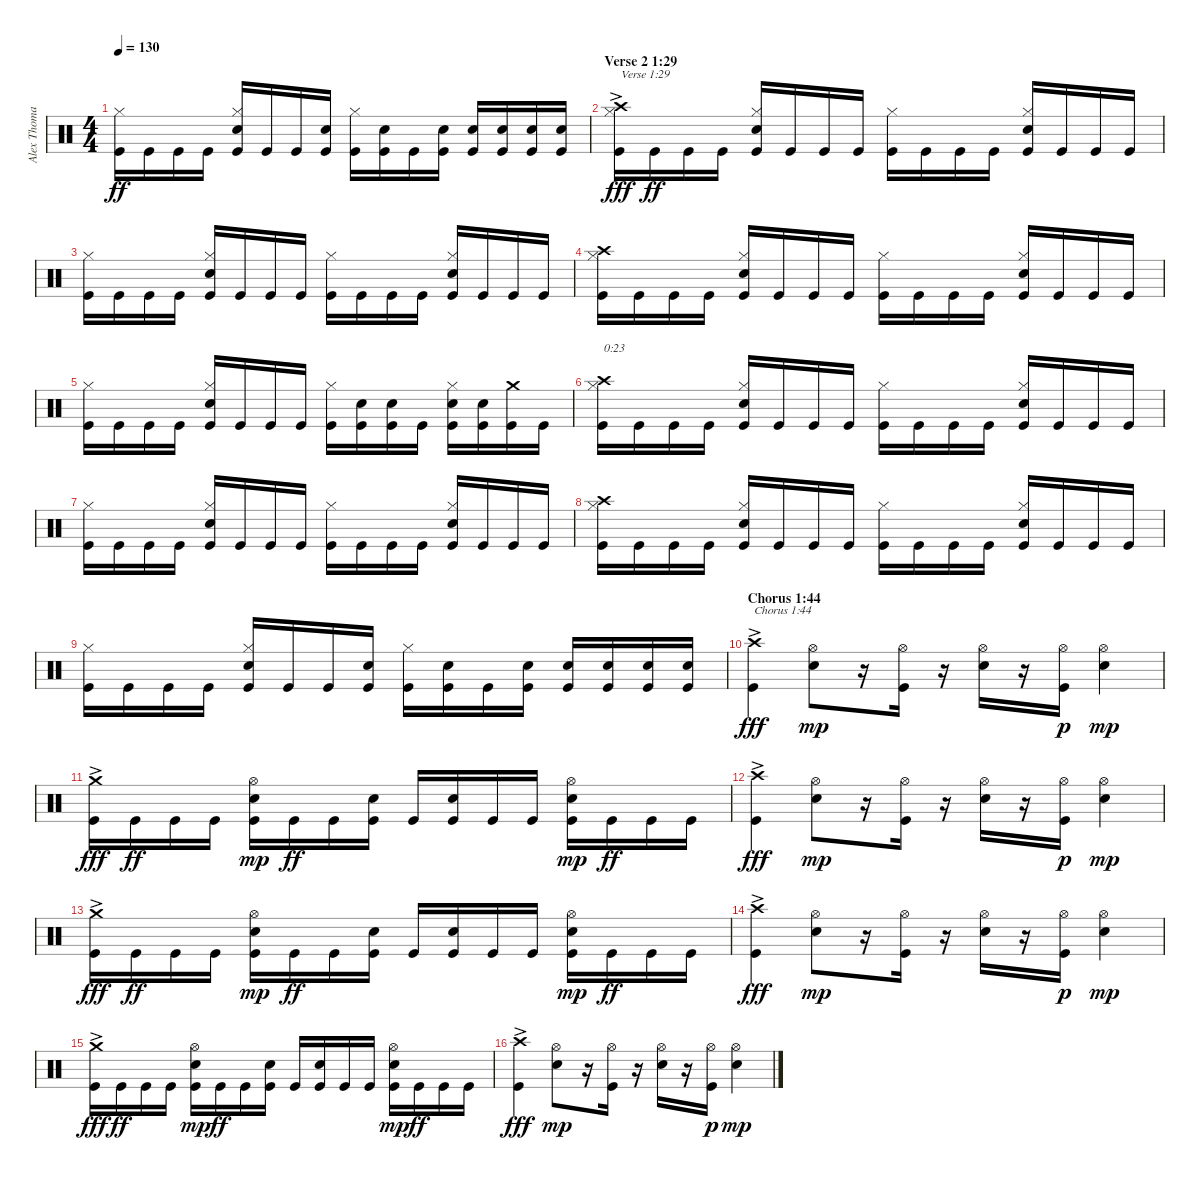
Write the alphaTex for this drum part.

\track ("Alex Thomas (Drums)" "Alex Thoma") {instrument percussion}
\staff {score}
\articulation defaults
\ts (4 4)
\tempo 130
\clef neutral
\ks c
("Kick (hit)" "Hi-Hat (closed)").16{dy ff} "Kick (hit)".16 "Kick (hit)".16 "Kick (hit)".16 ("Kick (hit)" "Electric Snare (hit)" "Hi-Hat (closed)").16 "Kick (hit)".16 "Kick (hit)".16 ("Kick (hit)" "Electric Snare (hit)").16 ("Kick (hit)" "Hi-Hat (closed)").16 ("Kick (hit)" "Electric Snare (hit)").16 "Kick (hit)".16 ("Kick (hit)" "Electric Snare (hit)").16 ("Kick (hit)" "Electric Snare (hit)").16 ("Kick (hit)" "Electric Snare (hit)").16 ("Kick (hit)" "Electric Snare (hit)").16 ("Kick (hit)" "Electric Snare (hit)").16 |
\section ("" "Verse 2 1:29")
("Kick (hit)" "Hi-Hat (closed)" "Crash high (hit)"{ac}).16{txt "Verse 1:29" dy fff} "Kick (hit)".16{dy ff} "Kick (hit)".16 "Kick (hit)".16 ("Kick (hit)" "Electric Snare (hit)" "Hi-Hat (closed)").16 "Kick (hit)".16 "Kick (hit)".16 "Kick (hit)".16 ("Kick (hit)" "Hi-Hat (closed)").16 "Kick (hit)".16 "Kick (hit)".16 "Kick (hit)".16 ("Kick (hit)" "Electric Snare (hit)" "Hi-Hat (closed)").16 "Kick (hit)".16 "Kick (hit)".16 "Kick (hit)".16 |
("Kick (hit)" "Hi-Hat (closed)").16 "Kick (hit)".16 "Kick (hit)".16 "Kick (hit)".16 ("Kick (hit)" "Electric Snare (hit)" "Hi-Hat (closed)").16 "Kick (hit)".16 "Kick (hit)".16 "Kick (hit)".16 ("Kick (hit)" "Hi-Hat (closed)").16 "Kick (hit)".16 "Kick (hit)".16 "Kick (hit)".16 ("Kick (hit)" "Electric Snare (hit)" "Hi-Hat (closed)").16 "Kick (hit)".16 "Kick (hit)".16 "Kick (hit)".16 |
("Kick (hit)" "Hi-Hat (closed)" "Crash high (hit)").16 "Kick (hit)".16 "Kick (hit)".16 "Kick (hit)".16 ("Kick (hit)" "Electric Snare (hit)" "Hi-Hat (closed)").16 "Kick (hit)".16 "Kick (hit)".16 "Kick (hit)".16 ("Kick (hit)" "Hi-Hat (closed)").16 "Kick (hit)".16 "Kick (hit)".16 "Kick (hit)".16 ("Kick (hit)" "Electric Snare (hit)" "Hi-Hat (closed)").16 "Kick (hit)".16 "Kick (hit)".16 "Kick (hit)".16 |
("Kick (hit)" "Hi-Hat (closed)").16 "Kick (hit)".16 "Kick (hit)".16 "Kick (hit)".16 ("Kick (hit)" "Electric Snare (hit)" "Hi-Hat (closed)").16 "Kick (hit)".16 "Kick (hit)".16 "Kick (hit)".16 ("Kick (hit)" "Hi-Hat (closed)").16 ("Kick (hit)" "Electric Snare (hit)").16 ("Kick (hit)" "Electric Snare (hit)").16 "Kick (hit)".16 ("Kick (hit)" "Electric Snare (hit)" "Hi-Hat (closed)").16 ("Kick (hit)" "Electric Snare (hit)").16 ("Kick (hit)" "Crash medium (hit)").16 "Kick (hit)".16 |
("Kick (hit)" "Hi-Hat (closed)" "Crash high (hit)").16{txt "0:23"} "Kick (hit)".16 "Kick (hit)".16 "Kick (hit)".16 ("Kick (hit)" "Electric Snare (hit)" "Hi-Hat (closed)").16 "Kick (hit)".16 "Kick (hit)".16 "Kick (hit)".16 ("Kick (hit)" "Hi-Hat (closed)").16 "Kick (hit)".16 "Kick (hit)".16 "Kick (hit)".16 ("Kick (hit)" "Electric Snare (hit)" "Hi-Hat (closed)").16 "Kick (hit)".16 "Kick (hit)".16 "Kick (hit)".16 |
("Kick (hit)" "Hi-Hat (closed)").16 "Kick (hit)".16 "Kick (hit)".16 "Kick (hit)".16 ("Kick (hit)" "Electric Snare (hit)" "Hi-Hat (closed)").16 "Kick (hit)".16 "Kick (hit)".16 "Kick (hit)".16 ("Kick (hit)" "Hi-Hat (closed)").16 "Kick (hit)".16 "Kick (hit)".16 "Kick (hit)".16 ("Kick (hit)" "Electric Snare (hit)" "Hi-Hat (closed)").16 "Kick (hit)".16 "Kick (hit)".16 "Kick (hit)".16 |
("Kick (hit)" "Hi-Hat (closed)" "Crash high (hit)").16 "Kick (hit)".16 "Kick (hit)".16 "Kick (hit)".16 ("Kick (hit)" "Electric Snare (hit)" "Hi-Hat (closed)").16 "Kick (hit)".16 "Kick (hit)".16 "Kick (hit)".16 ("Kick (hit)" "Hi-Hat (closed)").16 "Kick (hit)".16 "Kick (hit)".16 "Kick (hit)".16 ("Kick (hit)" "Electric Snare (hit)" "Hi-Hat (closed)").16 "Kick (hit)".16 "Kick (hit)".16 "Kick (hit)".16 |
("Kick (hit)" "Hi-Hat (closed)").16 "Kick (hit)".16 "Kick (hit)".16 "Kick (hit)".16 ("Kick (hit)" "Electric Snare (hit)" "Hi-Hat (closed)").16 "Kick (hit)".16 "Kick (hit)".16 ("Kick (hit)" "Electric Snare (hit)").16 ("Kick (hit)" "Hi-Hat (closed)").16 ("Kick (hit)" "Electric Snare (hit)").16 "Kick (hit)".16 ("Kick (hit)" "Electric Snare (hit)").16 ("Kick (hit)" "Electric Snare (hit)").16 ("Kick (hit)" "Electric Snare (hit)").16 ("Kick (hit)" "Electric Snare (hit)").16 ("Kick (hit)" "Electric Snare (hit)").16 |
\section ("" "Chorus 1:44")
("Kick (hit)" "Crash high (hit)"{ac}).4{txt "Chorus 1:44" dy fff} ("Electric Snare (hit)" "Hi-Hat (open)").8{dy mp} r.16 ("Kick (hit)" "Hi-Hat (open)").16 r.16 ("Electric Snare (hit)" "Hi-Hat (open)").16 r.16 ("Kick (hit)" "Hi-Hat (open)").16{dy p} ("Electric Snare (hit)" "Hi-Hat (open)").4{dy mp} |
("Kick (hit)" "Crash medium (hit)"{ac}).16{dy fff} "Kick (hit)".16{dy ff} "Kick (hit)".16 "Kick (hit)".16 ("Kick (hit)" "Electric Snare (hit)" "Hi-Hat (open)").16{dy mp} "Kick (hit)".16{dy ff} "Kick (hit)".16 ("Kick (hit)" "Electric Snare (hit)").16 "Kick (hit)".16 ("Kick (hit)" "Electric Snare (hit)").16 "Kick (hit)".16 "Kick (hit)".16 ("Kick (hit)" "Electric Snare (hit)" "Hi-Hat (open)").16{dy mp} "Kick (hit)".16{dy ff} "Kick (hit)".16 "Kick (hit)".16 |
("Kick (hit)" "Crash high (hit)"{ac}).4{dy fff} ("Electric Snare (hit)" "Hi-Hat (open)").8{dy mp} r.16 ("Kick (hit)" "Hi-Hat (open)").16 r.16 ("Electric Snare (hit)" "Hi-Hat (open)").16 r.16 ("Kick (hit)" "Hi-Hat (open)").16{dy p} ("Electric Snare (hit)" "Hi-Hat (open)").4{dy mp} |
("Kick (hit)" "Crash medium (hit)"{ac}).16{dy fff} "Kick (hit)".16{dy ff} "Kick (hit)".16 "Kick (hit)".16 ("Kick (hit)" "Electric Snare (hit)" "Hi-Hat (open)").16{dy mp} "Kick (hit)".16{dy ff} "Kick (hit)".16 ("Kick (hit)" "Electric Snare (hit)").16 "Kick (hit)".16 ("Kick (hit)" "Electric Snare (hit)").16 "Kick (hit)".16 "Kick (hit)".16 ("Kick (hit)" "Electric Snare (hit)" "Hi-Hat (open)").16{dy mp} "Kick (hit)".16{dy ff} "Kick (hit)".16 "Kick (hit)".16 |
("Kick (hit)" "Crash high (hit)"{ac}).4{dy fff} ("Electric Snare (hit)" "Hi-Hat (open)").8{dy mp} r.16 ("Kick (hit)" "Hi-Hat (open)").16 r.16 ("Electric Snare (hit)" "Hi-Hat (open)").16 r.16 ("Kick (hit)" "Hi-Hat (open)").16{dy p} ("Electric Snare (hit)" "Hi-Hat (open)").4{dy mp} |
("Kick (hit)" "Crash medium (hit)"{ac}).16{dy fff} "Kick (hit)".16{dy ff} "Kick (hit)".16 "Kick (hit)".16 ("Kick (hit)" "Electric Snare (hit)" "Hi-Hat (open)").16{dy mp} "Kick (hit)".16{dy ff} "Kick (hit)".16 ("Kick (hit)" "Electric Snare (hit)").16 "Kick (hit)".16 ("Kick (hit)" "Electric Snare (hit)").16 "Kick (hit)".16 "Kick (hit)".16 ("Kick (hit)" "Electric Snare (hit)" "Hi-Hat (open)").16{dy mp} "Kick (hit)".16{dy ff} "Kick (hit)".16 "Kick (hit)".16 |
("Kick (hit)" "Crash high (hit)"{ac}).4{dy fff} ("Electric Snare (hit)" "Hi-Hat (open)").8{dy mp} r.16 ("Kick (hit)" "Hi-Hat (open)").16 r.16 ("Electric Snare (hit)" "Hi-Hat (open)").16 r.16 ("Kick (hit)" "Hi-Hat (open)").16{dy p} ("Electric Snare (hit)" "Hi-Hat (open)").4{dy mp}
